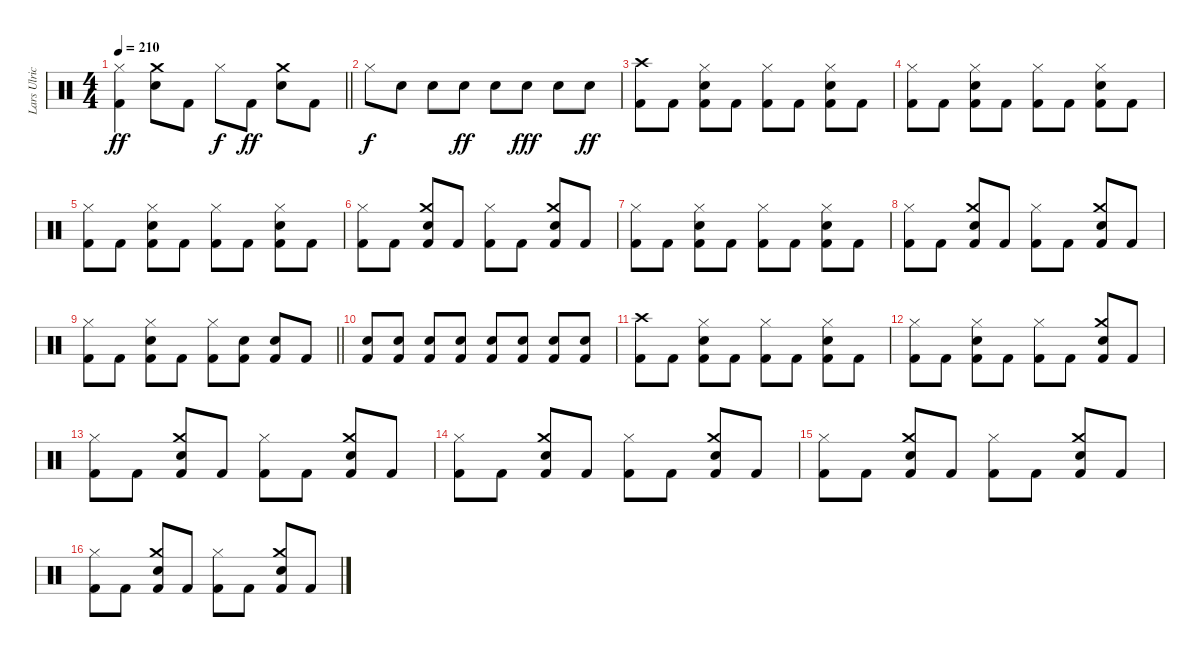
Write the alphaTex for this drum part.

\track ("Lars Ulrich" "Lars Ulric") {instrument percussion}
\staff {score}
\articulation defaults
\ts (4 4)
\tempo 210
\clef neutral
\barLineRight lightlight
\ks c
("Hi-Hat (closed)" "Kick (hit) 2").4{dy ff} ("Crash medium (hit)" "Snare (hit) 2").8 "Kick (hit) 2".8 "Hi-Hat (closed)".8{dy f} "Kick (hit) 2".8{dy ff} ("Crash medium (hit)" "Snare (hit) 2").8 "Kick (hit) 2".8 |
"Hi-Hat (closed)".8{dy f} "Snare (hit) 2".8 "Snare (hit) 2".8 "Snare (hit) 2".8{dy ff} "Snare (hit) 2".8 "Snare (hit) 2".8{dy fff} "Snare (hit) 2".8 "Snare (hit) 2".8{dy ff} |
("Crash high (hit)" "Kick (hit) 2").8 "Kick (hit) 2".8 ("Hi-Hat (closed)" "Snare (hit) 2" "Kick (hit) 2").8 "Kick (hit) 2".8 ("Hi-Hat (closed)" "Kick (hit) 2").8 "Kick (hit) 2".8 ("Hi-Hat (closed)" "Snare (hit) 2" "Kick (hit) 2").8 "Kick (hit) 2".8 |
("Hi-Hat (closed)" "Kick (hit) 2").8 "Kick (hit) 2".8 ("Hi-Hat (closed)" "Snare (hit) 2" "Kick (hit) 2").8 "Kick (hit) 2".8 ("Hi-Hat (closed)" "Kick (hit) 2").8 "Kick (hit) 2".8 ("Hi-Hat (closed)" "Snare (hit) 2" "Kick (hit) 2").8 "Kick (hit) 2".8 |
("Hi-Hat (closed)" "Kick (hit) 2").8 "Kick (hit) 2".8 ("Hi-Hat (closed)" "Snare (hit) 2" "Kick (hit) 2").8 "Kick (hit) 2".8 ("Hi-Hat (closed)" "Kick (hit) 2").8 "Kick (hit) 2".8 ("Hi-Hat (closed)" "Snare (hit) 2" "Kick (hit) 2").8 "Kick (hit) 2".8 |
("Hi-Hat (closed)" "Kick (hit) 2").8 "Kick (hit) 2".8 ("Crash medium (hit)" "Snare (hit) 2" "Kick (hit) 2").8 "Kick (hit) 2".8 ("Hi-Hat (closed)" "Kick (hit) 2").8 "Kick (hit) 2".8 ("Crash medium (hit)" "Snare (hit) 2" "Kick (hit) 2").8 "Kick (hit) 2".8 |
("Hi-Hat (closed)" "Kick (hit) 2").8 "Kick (hit) 2".8 ("Hi-Hat (closed)" "Snare (hit) 2" "Kick (hit) 2").8 "Kick (hit) 2".8 ("Hi-Hat (closed)" "Kick (hit) 2").8 "Kick (hit) 2".8 ("Hi-Hat (closed)" "Snare (hit) 2" "Kick (hit) 2").8 "Kick (hit) 2".8 |
("Hi-Hat (closed)" "Kick (hit) 2").8 "Kick (hit) 2".8 ("Crash medium (hit)" "Snare (hit) 2" "Kick (hit) 2").8 "Kick (hit) 2".8 ("Hi-Hat (closed)" "Kick (hit) 2").8 "Kick (hit) 2".8 ("Crash medium (hit)" "Snare (hit) 2" "Kick (hit) 2").8 "Kick (hit) 2".8 |
\barLineRight lightlight
("Hi-Hat (closed)" "Kick (hit) 2").8 "Kick (hit) 2".8 ("Hi-Hat (closed)" "Snare (hit) 2" "Kick (hit) 2").8 "Kick (hit) 2".8 ("Hi-Hat (closed)" "Kick (hit) 2").8 ("Snare (hit) 2" "Kick (hit) 2").8 ("Snare (hit) 2" "Kick (hit) 2").8 "Kick (hit) 2".8 |
("Snare (hit) 2" "Kick (hit) 2").8 ("Snare (hit) 2" "Kick (hit) 2").8 ("Snare (hit) 2" "Kick (hit) 2").8 ("Snare (hit) 2" "Kick (hit) 2").8 ("Snare (hit) 2" "Kick (hit) 2").8 ("Snare (hit) 2" "Kick (hit) 2").8 ("Snare (hit) 2" "Kick (hit) 2").8 ("Snare (hit) 2" "Kick (hit) 2").8 |
("Crash high (hit)" "Kick (hit) 2").8 "Kick (hit) 2".8 ("Hi-Hat (closed)" "Snare (hit) 2" "Kick (hit) 2").8 "Kick (hit) 2".8 ("Hi-Hat (closed)" "Kick (hit) 2").8 "Kick (hit) 2".8 ("Hi-Hat (closed)" "Snare (hit) 2" "Kick (hit) 2").8 "Kick (hit) 2".8 |
("Hi-Hat (closed)" "Kick (hit) 2").8 "Kick (hit) 2".8 ("Hi-Hat (closed)" "Snare (hit) 2" "Kick (hit) 2").8 "Kick (hit) 2".8 ("Hi-Hat (closed)" "Kick (hit) 2").8 "Kick (hit) 2".8 ("Crash medium (hit)" "Snare (hit) 2" "Kick (hit) 2").8 "Kick (hit) 2".8 |
("Hi-Hat (closed)" "Kick (hit) 2").8 "Kick (hit) 2".8 ("Crash medium (hit)" "Snare (hit) 2" "Kick (hit) 2").8 "Kick (hit) 2".8 ("Hi-Hat (closed)" "Kick (hit) 2").8 "Kick (hit) 2".8 ("Crash medium (hit)" "Snare (hit) 2" "Kick (hit) 2").8 "Kick (hit) 2".8 |
("Hi-Hat (closed)" "Kick (hit) 2").8 "Kick (hit) 2".8 ("Crash medium (hit)" "Snare (hit) 2" "Kick (hit) 2").8 "Kick (hit) 2".8 ("Hi-Hat (closed)" "Kick (hit) 2").8 "Kick (hit) 2".8 ("Crash medium (hit)" "Snare (hit) 2" "Kick (hit) 2").8 "Kick (hit) 2".8 |
("Hi-Hat (closed)" "Kick (hit) 2").8 "Kick (hit) 2".8 ("Crash medium (hit)" "Snare (hit) 2" "Kick (hit) 2").8 "Kick (hit) 2".8 ("Hi-Hat (closed)" "Kick (hit) 2").8 "Kick (hit) 2".8 ("Crash medium (hit)" "Snare (hit) 2" "Kick (hit) 2").8 "Kick (hit) 2".8 |
("Hi-Hat (closed)" "Kick (hit) 2").8 "Kick (hit) 2".8 ("Crash medium (hit)" "Snare (hit) 2" "Kick (hit) 2").8 "Kick (hit) 2".8 ("Hi-Hat (closed)" "Kick (hit) 2").8 "Kick (hit) 2".8 ("Crash medium (hit)" "Snare (hit) 2" "Kick (hit) 2").8 "Kick (hit) 2".8
